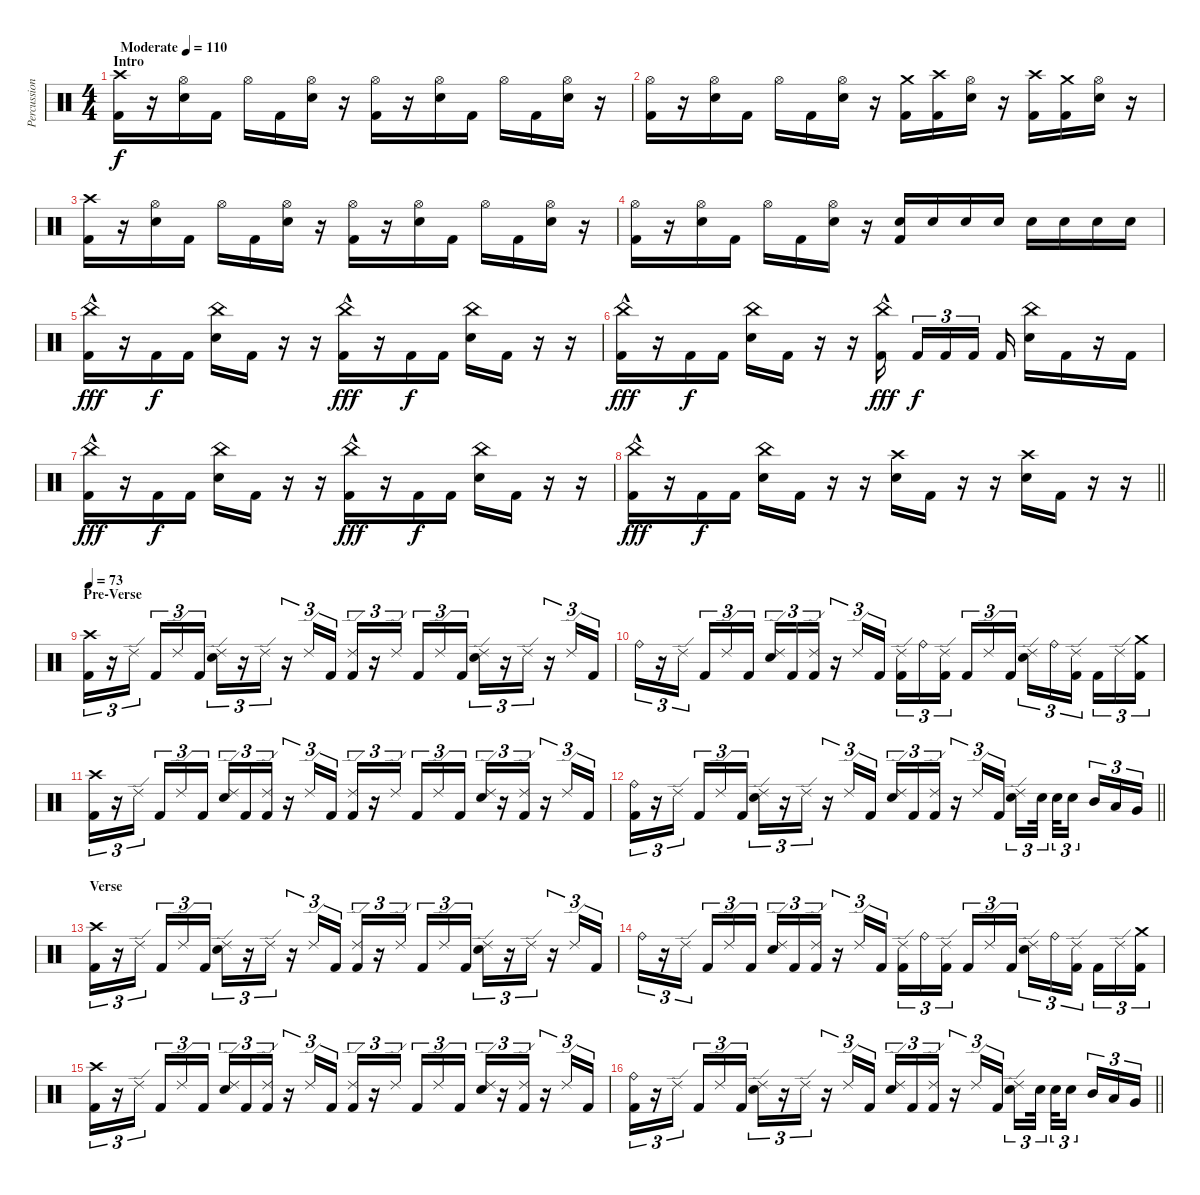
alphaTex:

\track ("Percussion" "Percussion") {instrument percussion}
\staff {score}
\articulation defaults
\ts (4 4)
\section ("" "Intro")
\tempo (110 "Moderate")
\clef neutral
\ks c
("Crash high (hit)" "Kick (hit) 2").16{dy f} r.16 ("Hi-Hat (open)" "Snare (hit) 2").16 "Kick (hit) 2".16 "Hi-Hat (open)".16 "Kick (hit) 2".16 ("Hi-Hat (open)" "Snare (hit) 2").16 r.16 ("Hi-Hat (open)" "Kick (hit) 2").16 r.16 ("Hi-Hat (open)" "Snare (hit) 2").16 "Kick (hit) 2".16 "Hi-Hat (open)".16 "Kick (hit) 2".16 ("Hi-Hat (open)" "Snare (hit) 2").16 r.16 |
("Hi-Hat (open)" "Kick (hit) 2").16 r.16 ("Hi-Hat (open)" "Snare (hit) 2").16 "Kick (hit) 2".16 "Hi-Hat (open)".16 "Kick (hit) 2".16 ("Hi-Hat (open)" "Snare (hit) 2").16 r.16 ("Crash medium (hit)" "Kick (hit) 2").16 ("Crash high (hit)" "Kick (hit) 2").16 ("Hi-Hat (open)" "Snare (hit) 2").16 r.16 ("Crash high (hit)" "Kick (hit) 2").16 ("Crash medium (hit)" "Kick (hit) 2").16 ("Hi-Hat (open)" "Snare (hit) 2").16 r.16 |
("Crash high (hit)" "Kick (hit) 2").16 r.16 ("Hi-Hat (open)" "Snare (hit) 2").16 "Kick (hit) 2".16 "Hi-Hat (open)".16 "Kick (hit) 2".16 ("Hi-Hat (open)" "Snare (hit) 2").16 r.16 ("Hi-Hat (open)" "Kick (hit) 2").16 r.16 ("Hi-Hat (open)" "Snare (hit) 2").16 "Kick (hit) 2".16 "Hi-Hat (open)".16 "Kick (hit) 2".16 ("Hi-Hat (open)" "Snare (hit) 2").16 r.16 |
("Hi-Hat (open)" "Kick (hit) 2").16 r.16 ("Hi-Hat (open)" "Snare (hit) 2").16 "Kick (hit) 2".16 "Hi-Hat (open)".16 "Kick (hit) 2".16 ("Hi-Hat (open)" "Snare (hit) 2").16 r.16 ("Snare (hit) 2" "Kick (hit) 2").16 "Snare (hit) 2".16 "Snare (hit) 2".16 "Snare (hit) 2".16 "Snare (hit) 2".16 "Snare (hit) 2".16 "Snare (hit) 2".16 "Snare (hit) 2".16 |
("China (hit)"{hac} "Kick (hit) 2").16{dy fff} r.16 "Kick (hit) 2".16{dy f} "Kick (hit) 2".16 ("China (hit)" "Snare (hit) 2").16 "Kick (hit) 2".16 r.16 r.16 ("China (hit)"{hac} "Kick (hit) 2").16{dy fff} r.16 "Kick (hit) 2".16{dy f} "Kick (hit) 2".16 ("China (hit)" "Snare (hit) 2").16 "Kick (hit) 2".16 r.16 r.16 |
("China (hit)"{hac} "Kick (hit) 2").16{dy fff} r.16 "Kick (hit) 2".16{dy f} "Kick (hit) 2".16 ("China (hit)" "Snare (hit) 2").16 "Kick (hit) 2".16 r.16 r.16 ("China (hit)"{hac} "Kick (hit) 2").16{dy fff beam splitsecondary} "Kick (hit) 2".16{tu (3 2) dy f} "Kick (hit) 2".16{tu (3 2)} "Kick (hit) 2".16{tu (3 2) beam splitsecondary} "Kick (hit) 2".16 ("China (hit)" "Snare (hit) 2").16 "Kick (hit) 2".16 r.16 "Kick (hit) 2".16 |
("China (hit)"{hac} "Kick (hit) 2").16{dy fff} r.16 "Kick (hit) 2".16{dy f} "Kick (hit) 2".16 ("China (hit)" "Snare (hit) 2").16 "Kick (hit) 2".16 r.16 r.16 ("China (hit)"{hac} "Kick (hit) 2").16{dy fff} r.16 "Kick (hit) 2".16{dy f} "Kick (hit) 2".16 ("China (hit)" "Snare (hit) 2").16 "Kick (hit) 2".16 r.16 r.16 |
\barLineRight lightlight
("China (hit)"{hac} "Kick (hit) 2").16{dy fff} r.16 "Kick (hit) 2".16{dy f} "Kick (hit) 2".16 ("China (hit)" "Snare (hit) 2").16 "Kick (hit) 2".16 r.16 r.16 ("Crash high (hit)" "Snare (hit) 2").16 "Kick (hit) 2".16 r.16 r.16 ("Crash high (hit)" "Snare (hit) 2").16 "Kick (hit) 2".16 r.16 r.16 |
\section ("" "Pre-Verse")
\tempo 73
("Crash high (hit)" "Kick (hit) 2").16{tu (3 2)} r.16{tu (3 2)} "Ride (edge) 2".16{tu (3 2) beam splitsecondary} "Kick (hit) 2".16{tu (3 2)} "Ride (edge) 2".16{tu (3 2)} "Kick (hit) 2".16{tu (3 2)} ("Ride (edge) 2" "Snare (hit) 2").16{tu (3 2)} r.16{tu (3 2)} "Ride (edge) 2".16{tu (3 2)} r.16{tu (3 2)} "Ride (edge) 2".16{tu (3 2)} "Kick (hit) 2".16{tu (3 2)} ("Ride (edge) 2" "Kick (hit) 2").16{tu (3 2)} r.16{tu (3 2)} "Ride (edge) 2".16{tu (3 2) beam splitsecondary} "Kick (hit) 2".16{tu (3 2)} "Ride (edge) 2".16{tu (3 2)} "Kick (hit) 2".16{tu (3 2)} ("Ride (edge) 2" "Snare (hit) 2").16{tu (3 2)} r.16{tu (3 2)} "Ride (edge) 2".16{tu (3 2)} r.16{tu (3 2)} "Ride (edge) 2".16{tu (3 2)} "Kick (hit) 2".16{tu (3 2)} |
"Ride (bell)".16{tu (3 2)} r.16{tu (3 2)} "Ride (edge) 2".16{tu (3 2) beam splitsecondary} "Kick (hit) 2".16{tu (3 2)} "Ride (edge) 2".16{tu (3 2)} "Kick (hit) 2".16{tu (3 2)} ("Ride (edge) 2" "Snare (hit) 2").16{tu (3 2)} "Kick (hit) 2".16{tu (3 2)} ("Ride (edge) 2" "Kick (hit) 2").16{tu (3 2)} r.16{tu (3 2)} "Ride (edge) 2".16{tu (3 2)} "Kick (hit) 2".16{tu (3 2)} ("Ride (edge) 2" "Kick (hit) 2").16{tu (3 2)} "Ride (bell)".16{tu (3 2)} ("Ride (edge) 2" "Kick (hit) 2").16{tu (3 2) beam splitsecondary} "Kick (hit) 2".16{tu (3 2)} "Ride (edge) 2".16{tu (3 2)} "Kick (hit) 2".16{tu (3 2)} ("Ride (edge) 2" "Snare (hit) 2").16{tu (3 2)} "Ride (bell)".16{tu (3 2)} ("Ride (edge) 2" "Kick (hit) 2").16{tu (3 2) beam splitsecondary} "Kick (hit) 2".16{tu (3 2)} "Ride (edge) 2".16{tu (3 2)} ("Crash medium (hit)" "Kick (hit) 2").16{tu (3 2)} |
("Crash high (hit)" "Kick (hit) 2").16{tu (3 2)} r.16{tu (3 2)} "Ride (edge) 2".16{tu (3 2) beam splitsecondary} "Kick (hit) 2".16{tu (3 2)} "Ride (edge) 2".16{tu (3 2)} "Kick (hit) 2".16{tu (3 2)} ("Ride (edge) 2" "Snare (hit) 2").16{tu (3 2)} "Kick (hit) 2".16{tu (3 2)} ("Ride (edge) 2" "Kick (hit) 2").16{tu (3 2)} r.16{tu (3 2)} "Ride (edge) 2".16{tu (3 2)} "Kick (hit) 2".16{tu (3 2)} ("Ride (edge) 2" "Kick (hit) 2").16{tu (3 2)} r.16{tu (3 2)} "Ride (edge) 2".16{tu (3 2) beam splitsecondary} "Kick (hit) 2".16{tu (3 2)} "Ride (edge) 2".16{tu (3 2)} "Kick (hit) 2".16{tu (3 2)} ("Ride (edge) 2" "Snare (hit) 2").16{tu (3 2)} r.16{tu (3 2)} ("Ride (edge) 2" "Kick (hit) 2").16{tu (3 2)} r.16{tu (3 2)} "Ride (edge) 2".16{tu (3 2)} "Kick (hit) 2".16{tu (3 2)} |
\barLineRight lightlight
("Ride (bell)" "Kick (hit) 2").16{tu (3 2)} r.16{tu (3 2)} "Ride (edge) 2".16{tu (3 2) beam splitsecondary} "Kick (hit) 2".16{tu (3 2)} "Ride (edge) 2".16{tu (3 2)} "Kick (hit) 2".16{tu (3 2)} ("Ride (edge) 2" "Snare (hit) 2").16{tu (3 2)} r.16{tu (3 2)} "Ride (edge) 2".16{tu (3 2)} r.16{tu (3 2)} "Ride (edge) 2".16{tu (3 2)} "Kick (hit) 2".16{tu (3 2)} ("Ride (edge) 2" "Snare (hit) 2").16{tu (3 2)} "Kick (hit) 2".16{tu (3 2)} ("Ride (edge) 2" "Kick (hit) 2").16{tu (3 2)} r.16{tu (3 2)} "Ride (edge) 2".16{tu (3 2)} "Kick (hit) 2".16{tu (3 2)} ("Ride (edge) 2" "Snare (hit) 2").16{tu (3 2)} "Snare (hit) 2".32{tu (3 2) beam splitsecondary} "Snare (hit) 2".32{tu (3 2)} "Snare (hit) 2".16{tu (3 2) beam splitsecondary} "Mid Tom (hit)".16{tu (3 2)} "Low Tom (hit)".16{tu (3 2)} "Very Low Tom (hit)".16{tu (3 2)} |
\section ("" "Verse")
("Crash high (hit)" "Kick (hit) 2").16{tu (3 2)} r.16{tu (3 2)} "Ride (edge) 2".16{tu (3 2) beam splitsecondary} "Kick (hit) 2".16{tu (3 2)} "Ride (edge) 2".16{tu (3 2)} "Kick (hit) 2".16{tu (3 2)} ("Ride (edge) 2" "Snare (hit) 2").16{tu (3 2)} r.16{tu (3 2)} "Ride (edge) 2".16{tu (3 2)} r.16{tu (3 2)} "Ride (edge) 2".16{tu (3 2)} "Kick (hit) 2".16{tu (3 2)} ("Ride (edge) 2" "Kick (hit) 2").16{tu (3 2)} r.16{tu (3 2)} "Ride (edge) 2".16{tu (3 2) beam splitsecondary} "Kick (hit) 2".16{tu (3 2)} "Ride (edge) 2".16{tu (3 2)} "Kick (hit) 2".16{tu (3 2)} ("Ride (edge) 2" "Snare (hit) 2").16{tu (3 2)} r.16{tu (3 2)} "Ride (edge) 2".16{tu (3 2)} r.16{tu (3 2)} "Ride (edge) 2".16{tu (3 2)} "Kick (hit) 2".16{tu (3 2)} |
"Ride (bell)".16{tu (3 2)} r.16{tu (3 2)} "Ride (edge) 2".16{tu (3 2) beam splitsecondary} "Kick (hit) 2".16{tu (3 2)} "Ride (edge) 2".16{tu (3 2)} "Kick (hit) 2".16{tu (3 2)} ("Ride (edge) 2" "Snare (hit) 2").16{tu (3 2)} "Kick (hit) 2".16{tu (3 2)} ("Ride (edge) 2" "Kick (hit) 2").16{tu (3 2)} r.16{tu (3 2)} "Ride (edge) 2".16{tu (3 2)} "Kick (hit) 2".16{tu (3 2)} ("Ride (edge) 2" "Kick (hit) 2").16{tu (3 2)} "Ride (bell)".16{tu (3 2)} ("Ride (edge) 2" "Kick (hit) 2").16{tu (3 2) beam splitsecondary} "Kick (hit) 2".16{tu (3 2)} "Ride (edge) 2".16{tu (3 2)} "Kick (hit) 2".16{tu (3 2)} ("Ride (edge) 2" "Snare (hit) 2").16{tu (3 2)} "Ride (bell)".16{tu (3 2)} ("Ride (edge) 2" "Kick (hit) 2").16{tu (3 2) beam splitsecondary} "Kick (hit) 2".16{tu (3 2)} "Ride (edge) 2".16{tu (3 2)} ("Crash medium (hit)" "Kick (hit) 2").16{tu (3 2)} |
("Crash high (hit)" "Kick (hit) 2").16{tu (3 2)} r.16{tu (3 2)} "Ride (edge) 2".16{tu (3 2) beam splitsecondary} "Kick (hit) 2".16{tu (3 2)} "Ride (edge) 2".16{tu (3 2)} "Kick (hit) 2".16{tu (3 2)} ("Ride (edge) 2" "Snare (hit) 2").16{tu (3 2)} "Kick (hit) 2".16{tu (3 2)} ("Ride (edge) 2" "Kick (hit) 2").16{tu (3 2)} r.16{tu (3 2)} "Ride (edge) 2".16{tu (3 2)} "Kick (hit) 2".16{tu (3 2)} ("Ride (edge) 2" "Kick (hit) 2").16{tu (3 2)} r.16{tu (3 2)} "Ride (edge) 2".16{tu (3 2) beam splitsecondary} "Kick (hit) 2".16{tu (3 2)} "Ride (edge) 2".16{tu (3 2)} "Kick (hit) 2".16{tu (3 2)} ("Ride (edge) 2" "Snare (hit) 2").16{tu (3 2)} r.16{tu (3 2)} ("Ride (edge) 2" "Kick (hit) 2").16{tu (3 2)} r.16{tu (3 2)} "Ride (edge) 2".16{tu (3 2)} "Kick (hit) 2".16{tu (3 2)} |
\barLineRight lightlight
("Ride (bell)" "Kick (hit) 2").16{tu (3 2)} r.16{tu (3 2)} "Ride (edge) 2".16{tu (3 2) beam splitsecondary} "Kick (hit) 2".16{tu (3 2)} "Ride (edge) 2".16{tu (3 2)} "Kick (hit) 2".16{tu (3 2)} ("Ride (edge) 2" "Snare (hit) 2").16{tu (3 2)} r.16{tu (3 2)} "Ride (edge) 2".16{tu (3 2)} r.16{tu (3 2)} "Ride (edge) 2".16{tu (3 2)} "Kick (hit) 2".16{tu (3 2)} ("Ride (edge) 2" "Snare (hit) 2").16{tu (3 2)} "Kick (hit) 2".16{tu (3 2)} ("Ride (edge) 2" "Kick (hit) 2").16{tu (3 2)} r.16{tu (3 2)} "Ride (edge) 2".16{tu (3 2)} "Kick (hit) 2".16{tu (3 2)} ("Ride (edge) 2" "Snare (hit) 2").16{tu (3 2)} "Snare (hit) 2".32{tu (3 2) beam splitsecondary} "Snare (hit) 2".32{tu (3 2)} "Snare (hit) 2".16{tu (3 2) beam splitsecondary} "Mid Tom (hit)".16{tu (3 2)} "Low Tom (hit)".16{tu (3 2)} "Very Low Tom (hit)".16{tu (3 2)}
